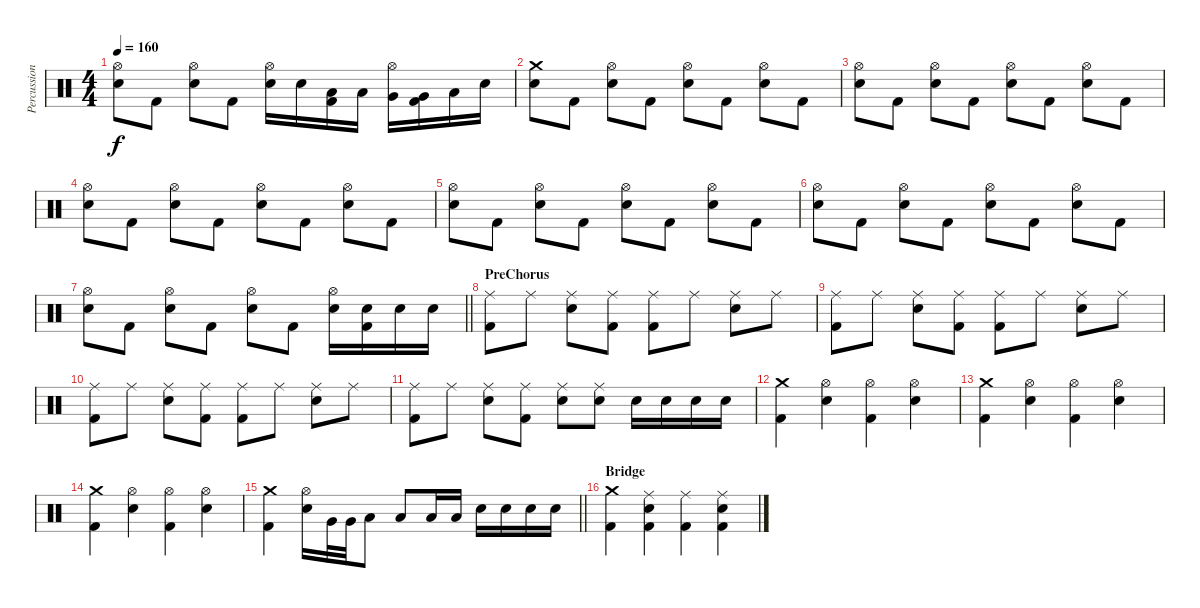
\track ("Percussioni" "Percussion") {instrument percussion}
\staff {score}
\articulation defaults
\ts (4 4)
\tempo 160
\clef neutral
\ks c
("Hi-Hat (open)" "Electric Snare (hit)").8{dy f} "Kick (hit) 2".8 ("Hi-Hat (open)" "Electric Snare (hit)").8 "Kick (hit) 2".8 ("Hi-Hat (open)" "Electric Snare (hit)").16 "Electric Snare (hit)".16 ("Low Tom (hit)" "Kick (hit) 2").16 "Low Tom (hit)".16 ("Hi-Hat (open)" "Very Low Tom (hit)").16 ("Very Low Tom (hit)" "Kick (hit) 2").16 "Low Floor Tom (hit)".16 "Snare (hit)".16 |
("Crash medium (hit)" "Electric Snare (hit)").8 "Kick (hit) 2".8 ("Hi-Hat (open)" "Electric Snare (hit)").8 "Kick (hit) 2".8 ("Hi-Hat (open)" "Electric Snare (hit)").8 "Kick (hit) 2".8 ("Hi-Hat (open)" "Electric Snare (hit)").8 "Kick (hit) 2".8 |
("Hi-Hat (open)" "Electric Snare (hit)").8 "Kick (hit) 2".8 ("Hi-Hat (open)" "Electric Snare (hit)").8 "Kick (hit) 2".8 ("Hi-Hat (open)" "Electric Snare (hit)").8 "Kick (hit) 2".8 ("Hi-Hat (open)" "Electric Snare (hit)").8 "Kick (hit) 2".8 |
("Hi-Hat (open)" "Electric Snare (hit)").8 "Kick (hit) 2".8 ("Hi-Hat (open)" "Electric Snare (hit)").8 "Kick (hit) 2".8 ("Hi-Hat (open)" "Electric Snare (hit)").8 "Kick (hit) 2".8 ("Hi-Hat (open)" "Electric Snare (hit)").8 "Kick (hit) 2".8 |
("Hi-Hat (open)" "Electric Snare (hit)").8 "Kick (hit) 2".8 ("Hi-Hat (open)" "Electric Snare (hit)").8 "Kick (hit) 2".8 ("Hi-Hat (open)" "Electric Snare (hit)").8 "Kick (hit) 2".8 ("Hi-Hat (open)" "Electric Snare (hit)").8 "Kick (hit) 2".8 |
("Hi-Hat (open)" "Electric Snare (hit)").8 "Kick (hit) 2".8 ("Hi-Hat (open)" "Electric Snare (hit)").8 "Kick (hit) 2".8 ("Hi-Hat (open)" "Electric Snare (hit)").8 "Kick (hit) 2".8 ("Hi-Hat (open)" "Electric Snare (hit)").8 "Kick (hit) 2".8 |
\barLineRight lightlight
("Hi-Hat (open)" "Electric Snare (hit)").8 "Kick (hit) 2".8 ("Hi-Hat (open)" "Electric Snare (hit)").8 "Kick (hit) 2".8 ("Hi-Hat (open)" "Electric Snare (hit)").8 "Kick (hit) 2".8 ("Hi-Hat (open)" "Electric Snare (hit)").16 ("Electric Snare (hit)" "Kick (hit) 2").16 "Electric Snare (hit)".16 "Electric Snare (hit)".16 |
\section ("" "PreChorus")
("Ride (middle)" "Kick (hit) 2").8 "Ride (middle)".8 ("Ride (middle)" "Electric Snare (hit)").8 ("Ride (middle)" "Kick (hit) 2").8 ("Ride (middle)" "Kick (hit) 2").8 "Ride (middle)".8 ("Ride (middle)" "Electric Snare (hit)").8 "Ride (middle)".8 |
("Ride (middle)" "Kick (hit) 2").8 "Ride (middle)".8 ("Ride (middle)" "Electric Snare (hit)").8 ("Ride (middle)" "Kick (hit) 2").8 ("Ride (middle)" "Kick (hit) 2").8 "Ride (middle)".8 ("Ride (middle)" "Electric Snare (hit)").8 "Ride (middle)".8 |
("Ride (middle)" "Kick (hit) 2").8 "Ride (middle)".8 ("Ride (middle)" "Electric Snare (hit)").8 ("Ride (middle)" "Kick (hit) 2").8 ("Ride (middle)" "Kick (hit) 2").8 "Ride (middle)".8 ("Ride (middle)" "Electric Snare (hit)").8 "Ride (middle)".8 |
("Ride (middle)" "Kick (hit) 2").8 "Ride (middle)".8 ("Ride (middle)" "Electric Snare (hit)").8 ("Ride (middle)" "Kick (hit) 2").8 ("Ride (middle)" "Electric Snare (hit)").8 ("Ride (middle)" "Electric Snare (hit)").8 "Electric Snare (hit)".16 "Electric Snare (hit)".16 "Electric Snare (hit)".16 "Electric Snare (hit)".16 |
("Crash medium (hit)" "Kick (hit) 2").4 ("Hi-Hat (open)" "Electric Snare (hit)").4 ("Hi-Hat (open)" "Kick (hit) 2").4 ("Hi-Hat (open)" "Electric Snare (hit)").4 |
("Crash medium (hit)" "Kick (hit) 2").4 ("Hi-Hat (open)" "Electric Snare (hit)").4 ("Hi-Hat (open)" "Kick (hit) 2").4 ("Hi-Hat (open)" "Electric Snare (hit)").4 |
("Crash medium (hit)" "Kick (hit) 2").4 ("Hi-Hat (open)" "Electric Snare (hit)").4 ("Hi-Hat (open)" "Kick (hit) 2").4 ("Hi-Hat (open)" "Electric Snare (hit)").4 |
\barLineRight lightlight
("Crash medium (hit)" "Kick (hit) 2").4 ("Hi-Hat (open)" "Electric Snare (hit)").16 "Very Low Tom (hit)".32 "Very Low Tom (hit)".32 "Low Floor Tom (hit)".8 "Low Floor Tom (hit)".8 "Low Floor Tom (hit)".16 "Low Floor Tom (hit)".16 "Electric Snare (hit)".16 "Electric Snare (hit)".16 "Electric Snare (hit)".16 "Electric Snare (hit)".16 |
\section ("" "Bridge")
("Crash medium (hit)" "Kick (hit) 2").4 ("Ride (middle)" "Electric Snare (hit)" "Kick (hit) 2").4 ("Ride (middle)" "Kick (hit) 2").4 ("Ride (middle)" "Electric Snare (hit)" "Kick (hit) 2").4
